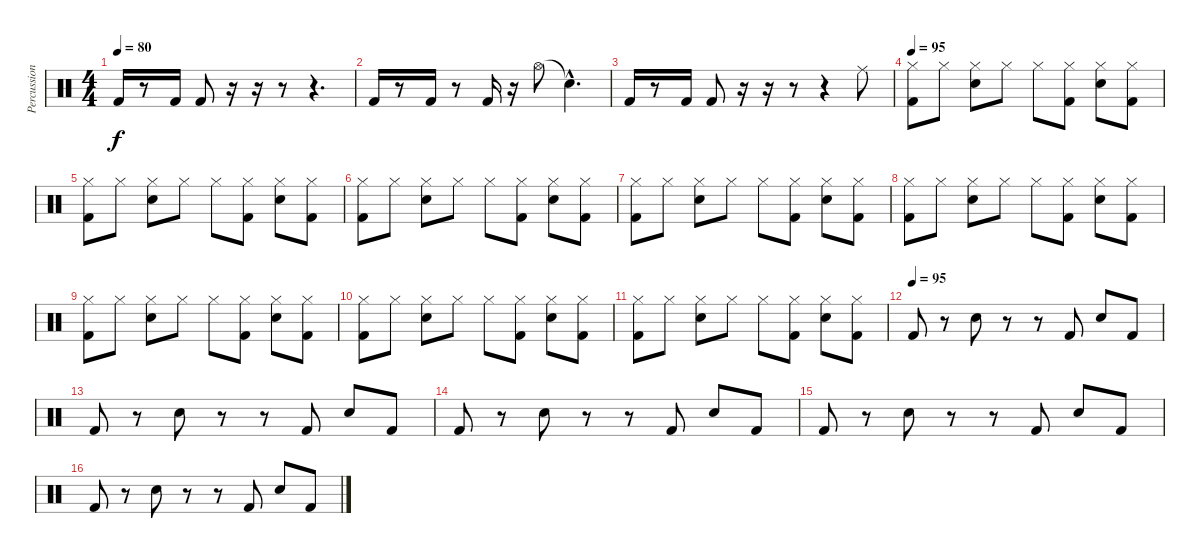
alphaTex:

\track ("Percussion" "Percussion") {instrument percussion}
\staff {score}
\articulation defaults
\ts (4 4)
\tempo 80
\clef neutral
\ks c "Kick (hit) 2".16{dy f}
r.8 "Kick (hit) 2".16 "Kick (hit) 2".8 r.16 r.16 r.8 r.4{d} |
"Kick (hit) 2".16 r.8 "Kick (hit) 2".16 r.8 "Kick (hit) 2".16 r.16 "Hi-Hat (open)".8 "Snare (hit)"{hac t}.4{d} |
"Kick (hit) 2".16 r.8 "Kick (hit) 2".16 "Kick (hit) 2".8 r.16 r.16 r.8 r.4 "Ride (middle)".8 |
\tempo 95
("Hi-Hat (closed)" "Kick (hit) 2").8 "Hi-Hat (closed)".8 ("Hi-Hat (closed)" "Snare (hit) 2").8 "Hi-Hat (closed)".8 "Hi-Hat (closed)".8 ("Hi-Hat (closed)" "Kick (hit) 2").8 ("Hi-Hat (closed)" "Snare (hit) 2").8 ("Hi-Hat (closed)" "Kick (hit) 2").8 |
("Hi-Hat (closed)" "Kick (hit) 2").8 "Hi-Hat (closed)".8 ("Hi-Hat (closed)" "Snare (hit) 2").8 "Hi-Hat (closed)".8 "Hi-Hat (closed)".8 ("Hi-Hat (closed)" "Kick (hit) 2").8 ("Hi-Hat (closed)" "Snare (hit) 2").8 ("Hi-Hat (closed)" "Kick (hit) 2").8 |
("Hi-Hat (closed)" "Kick (hit) 2").8 "Hi-Hat (closed)".8 ("Hi-Hat (closed)" "Snare (hit) 2").8 "Hi-Hat (closed)".8 "Hi-Hat (closed)".8 ("Hi-Hat (closed)" "Kick (hit) 2").8 ("Hi-Hat (closed)" "Snare (hit) 2").8 ("Hi-Hat (closed)" "Kick (hit) 2").8 |
("Hi-Hat (closed)" "Kick (hit) 2").8 "Hi-Hat (closed)".8 ("Hi-Hat (closed)" "Snare (hit) 2").8 "Hi-Hat (closed)".8 "Hi-Hat (closed)".8 ("Hi-Hat (closed)" "Kick (hit) 2").8 ("Hi-Hat (closed)" "Snare (hit) 2").8 ("Hi-Hat (closed)" "Kick (hit) 2").8 |
("Hi-Hat (closed)" "Kick (hit) 2").8 "Hi-Hat (closed)".8 ("Hi-Hat (closed)" "Snare (hit) 2").8 "Hi-Hat (closed)".8 "Hi-Hat (closed)".8 ("Hi-Hat (closed)" "Kick (hit) 2").8 ("Hi-Hat (closed)" "Snare (hit) 2").8 ("Hi-Hat (closed)" "Kick (hit) 2").8 |
("Hi-Hat (closed)" "Kick (hit) 2").8 "Hi-Hat (closed)".8 ("Hi-Hat (closed)" "Snare (hit) 2").8 "Hi-Hat (closed)".8 "Hi-Hat (closed)".8 ("Hi-Hat (closed)" "Kick (hit) 2").8 ("Hi-Hat (closed)" "Snare (hit) 2").8 ("Hi-Hat (closed)" "Kick (hit) 2").8 |
("Hi-Hat (closed)" "Kick (hit) 2").8 "Hi-Hat (closed)".8 ("Hi-Hat (closed)" "Snare (hit) 2").8 "Hi-Hat (closed)".8 "Hi-Hat (closed)".8 ("Hi-Hat (closed)" "Kick (hit) 2").8 ("Hi-Hat (closed)" "Snare (hit) 2").8 ("Hi-Hat (closed)" "Kick (hit) 2").8 |
("Hi-Hat (closed)" "Kick (hit) 2").8 "Hi-Hat (closed)".8 ("Hi-Hat (closed)" "Snare (hit) 2").8 "Hi-Hat (closed)".8 "Hi-Hat (closed)".8 ("Hi-Hat (closed)" "Kick (hit) 2").8 ("Hi-Hat (closed)" "Snare (hit) 2").8 ("Hi-Hat (closed)" "Kick (hit) 2").8 |
\tempo (95)
"Kick (hit) 2".8{volume 10} r.8 "Snare (hit) 2".8 r.8 r.8 "Kick (hit) 2".8 "Snare (hit) 2".8 "Kick (hit) 2".8 |
"Kick (hit) 2".8 r.8 "Snare (hit) 2".8 r.8 r.8 "Kick (hit) 2".8 "Snare (hit) 2".8 "Kick (hit) 2".8 |
"Kick (hit) 2".8 r.8 "Snare (hit) 2".8 r.8 r.8 "Kick (hit) 2".8 "Snare (hit) 2".8 "Kick (hit) 2".8 |
"Kick (hit) 2".8 r.8 "Snare (hit) 2".8 r.8 r.8 "Kick (hit) 2".8 "Snare (hit) 2".8 "Kick (hit) 2".8 |
"Kick (hit) 2".8 r.8 "Snare (hit) 2".8 r.8 r.8 "Kick (hit) 2".8 "Snare (hit) 2".8 "Kick (hit) 2".8
